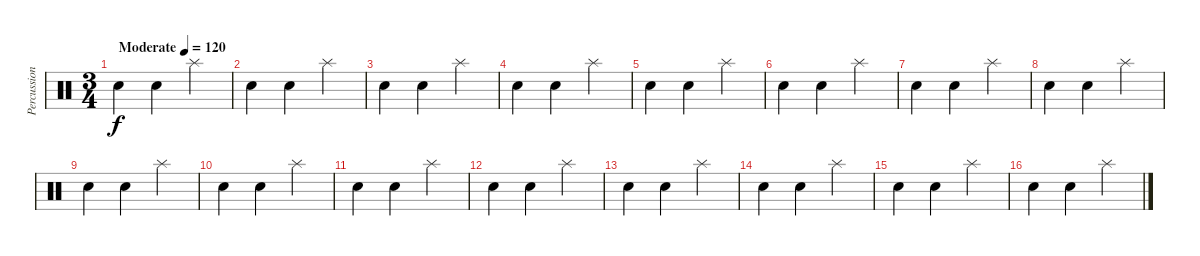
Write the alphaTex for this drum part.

\track ("Percussion" "Percussion") {instrument percussion}
\staff {score}
\articulation defaults
\ts (3 4)
\tempo (120 "Moderate")
\clef neutral
\ks c "Snare (hit) 2".4{dy f} "Snare (hit) 2".4 "Splash (hit)".4
|
"Snare (hit) 2".4 "Snare (hit) 2".4 "Splash (hit)".4 |
"Snare (hit) 2".4 "Snare (hit) 2".4 "Splash (hit)".4 |
"Snare (hit) 2".4 "Snare (hit) 2".4 "Splash (hit)".4 |
"Snare (hit) 2".4 "Snare (hit) 2".4 "Splash (hit)".4 |
"Snare (hit) 2".4 "Snare (hit) 2".4 "Splash (hit)".4 |
"Snare (hit) 2".4 "Snare (hit) 2".4 "Splash (hit)".4 |
"Snare (hit) 2".4 "Snare (hit) 2".4 "Splash (hit)".4 |
"Snare (hit) 2".4 "Snare (hit) 2".4 "Splash (hit)".4 |
"Snare (hit) 2".4 "Snare (hit) 2".4 "Splash (hit)".4 |
"Snare (hit) 2".4 "Snare (hit) 2".4 "Splash (hit)".4 |
"Snare (hit) 2".4 "Snare (hit) 2".4 "Splash (hit)".4 |
"Snare (hit) 2".4 "Snare (hit) 2".4 "Splash (hit)".4 |
"Snare (hit) 2".4 "Snare (hit) 2".4 "Splash (hit)".4 |
"Snare (hit) 2".4 "Snare (hit) 2".4 "Splash (hit)".4 |
"Snare (hit) 2".4 "Snare (hit) 2".4 "Splash (hit)".4
